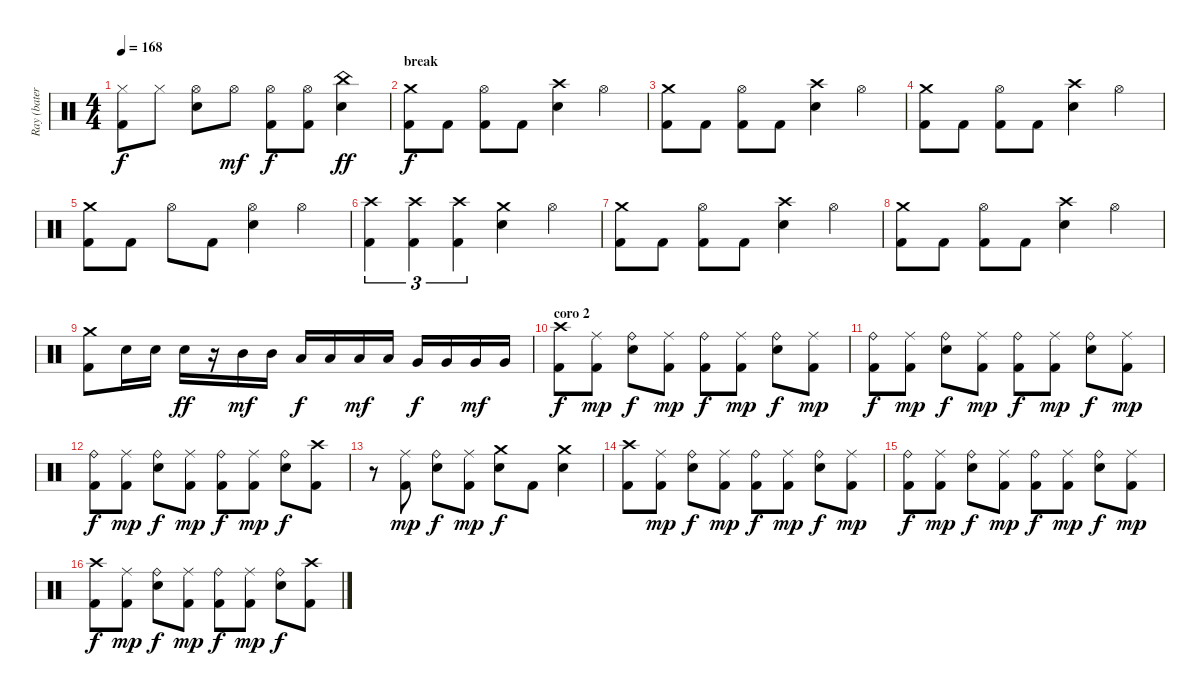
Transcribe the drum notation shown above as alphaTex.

\track ("Ray (batería)" "Ray (bater") {instrument percussion}
\staff {score}
\articulation defaults
\ts (4 4)
\tempo 168
\clef neutral
\ks c
("Hi-Hat (closed)" "Kick (hit) 2").8{dy f} "Hi-Hat (closed)".8 ("Hi-Hat (open)" "Snare (hit) 2").8 "Hi-Hat (open)".8{dy mf} ("Hi-Hat (open)" "Kick (hit) 2").8{dy f} ("Hi-Hat (open)" "Kick (hit) 2").8 ("China (hit)" "Snare (hit) 2").4{dy ff} |
\section ("" "break")
("Crash medium (hit)" "Kick (hit) 2").8{dy f} "Kick (hit) 2".8 ("Hi-Hat (open)" "Kick (hit) 2").8 "Kick (hit) 2".8 ("Crash high (hit)" "Snare (hit) 2").4 "Hi-Hat (open)".4 |
("Crash medium (hit)" "Kick (hit) 2").8 "Kick (hit) 2".8 ("Hi-Hat (open)" "Kick (hit) 2").8 "Kick (hit) 2".8 ("Crash high (hit)" "Snare (hit) 2").4 "Hi-Hat (open)".4 |
("Crash medium (hit)" "Kick (hit) 2").8 "Kick (hit) 2".8 ("Hi-Hat (open)" "Kick (hit) 2").8 "Kick (hit) 2".8 ("Crash high (hit)" "Snare (hit) 2").4 "Hi-Hat (open)".4 |
("Crash medium (hit)" "Kick (hit) 2").8 "Kick (hit) 2".8 "Hi-Hat (open)".8 "Kick (hit) 2".8 ("Hi-Hat (open)" "Snare (hit) 2").4 "Hi-Hat (open)".4 |
("Crash high (hit)" "Kick (hit) 2").4{tu (3 2)} ("Crash high (hit)" "Kick (hit) 2").4{tu (3 2)} ("Crash high (hit)" "Kick (hit) 2").4{tu (3 2)} ("Crash medium (hit)" "Snare (hit) 2").4 "Hi-Hat (open)".4 |
("Crash medium (hit)" "Kick (hit) 2").8 "Kick (hit) 2".8 ("Hi-Hat (open)" "Kick (hit) 2").8 "Kick (hit) 2".8 ("Crash high (hit)" "Snare (hit) 2").4 "Hi-Hat (open)".4 |
("Crash medium (hit)" "Kick (hit) 2").8 "Kick (hit) 2".8 ("Hi-Hat (open)" "Kick (hit) 2").8 "Kick (hit) 2".8 ("Crash high (hit)" "Snare (hit) 2").4 "Hi-Hat (open)".4 |
("Crash medium (hit)" "Kick (hit) 2").8 "Snare (hit) 2".16 "Snare (hit) 2".16 "Snare (hit) 2".16{dy ff} r.16 "Mid Tom (hit)".16{dy mf} "Mid Tom (hit)".16 "Low Tom (hit)".16{dy f} "Low Tom (hit)".16 "Low Tom (hit)".16{dy mf} "Low Tom (hit)".16 "Very Low Tom (hit)".16{dy f} "Very Low Tom (hit)".16 "Very Low Tom (hit)".16{dy mf} "Very Low Tom (hit)".16 |
\section ("" "coro 2")
("Crash high (hit)" "Kick (hit) 2").8{dy f} ("Ride (middle)" "Kick (hit) 2").8{dy mp} ("Ride (bell)" "Snare (hit) 2").8{dy f} ("Ride (middle)" "Kick (hit) 2").8{dy mp} ("Ride (bell)" "Kick (hit) 2").8{dy f} ("Ride (middle)" "Kick (hit) 2").8{dy mp} ("Ride (bell)" "Snare (hit) 2").8{dy f} ("Ride (middle)" "Kick (hit) 2").8{dy mp} |
("Ride (bell)" "Kick (hit) 2").8{dy f} ("Ride (middle)" "Kick (hit) 2").8{dy mp} ("Ride (bell)" "Snare (hit) 2").8{dy f} ("Ride (middle)" "Kick (hit) 2").8{dy mp} ("Ride (bell)" "Kick (hit) 2").8{dy f} ("Ride (middle)" "Kick (hit) 2").8{dy mp} ("Ride (bell)" "Snare (hit) 2").8{dy f} ("Ride (middle)" "Kick (hit) 2").8{dy mp} |
("Ride (bell)" "Kick (hit) 2").8{dy f} ("Ride (middle)" "Kick (hit) 2").8{dy mp} ("Ride (bell)" "Snare (hit) 2").8{dy f} ("Ride (middle)" "Kick (hit) 2").8{dy mp} ("Ride (bell)" "Kick (hit) 2").8{dy f} ("Ride (middle)" "Kick (hit) 2").8{dy mp} ("Ride (bell)" "Snare (hit) 2").8{dy f} ("Crash high (hit)" "Kick (hit) 2").8 |
r.8 ("Ride (middle)" "Kick (hit) 2").8{dy mp} ("Ride (bell)" "Snare (hit) 2").8{dy f} ("Ride (middle)" "Kick (hit) 2").8{dy mp} ("Crash medium (hit)" "Snare (hit) 2").8{dy f} "Kick (hit) 2".8 ("Crash medium (hit)" "Snare (hit) 2").4 |
("Crash high (hit)" "Kick (hit) 2").8 ("Ride (middle)" "Kick (hit) 2").8{dy mp} ("Ride (bell)" "Snare (hit) 2").8{dy f} ("Ride (middle)" "Kick (hit) 2").8{dy mp} ("Ride (bell)" "Kick (hit) 2").8{dy f} ("Ride (middle)" "Kick (hit) 2").8{dy mp} ("Ride (bell)" "Snare (hit) 2").8{dy f} ("Ride (middle)" "Kick (hit) 2").8{dy mp} |
("Ride (bell)" "Kick (hit) 2").8{dy f} ("Ride (middle)" "Kick (hit) 2").8{dy mp} ("Ride (bell)" "Snare (hit) 2").8{dy f} ("Ride (middle)" "Kick (hit) 2").8{dy mp} ("Ride (bell)" "Kick (hit) 2").8{dy f} ("Ride (middle)" "Kick (hit) 2").8{dy mp} ("Ride (bell)" "Snare (hit) 2").8{dy f} ("Ride (middle)" "Kick (hit) 2").8{dy mp} |
("Crash high (hit)" "Kick (hit) 2").8{dy f} ("Ride (middle)" "Kick (hit) 2").8{dy mp} ("Ride (bell)" "Snare (hit) 2").8{dy f} ("Ride (middle)" "Kick (hit) 2").8{dy mp} ("Ride (bell)" "Kick (hit) 2").8{dy f} ("Ride (middle)" "Kick (hit) 2").8{dy mp} ("Ride (bell)" "Snare (hit) 2").8{dy f} ("Crash high (hit)" "Kick (hit) 2").8
